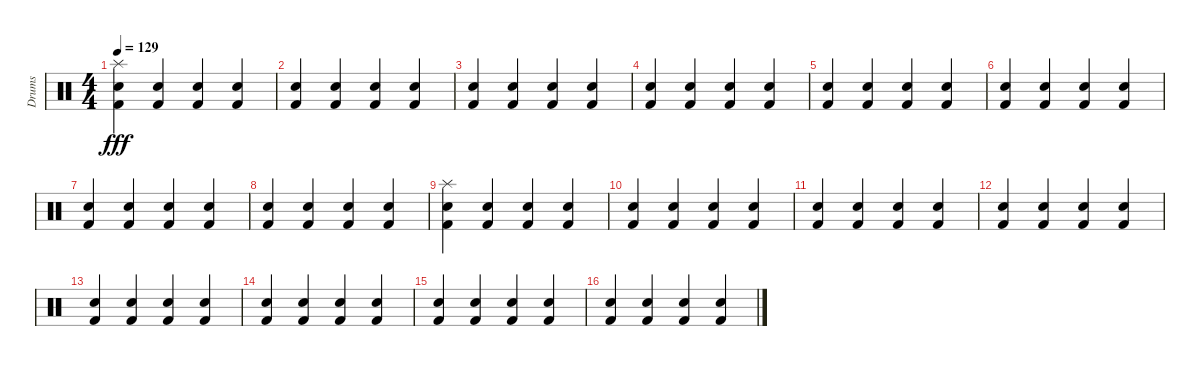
\track ("Drums" "Drums") {instrument percussion}
\staff {score}
\articulation defaults
\ts (4 4)
\tempo 129
\clef neutral
\ks c
("Splash (hit)" "Hand Clap (hit)" "Kick (hit) 2").4{dy fff} ("Hand Clap (hit)" "Kick (hit) 2").4 ("Hand Clap (hit)" "Kick (hit) 2").4 ("Hand Clap (hit)" "Kick (hit) 2").4 |
("Hand Clap (hit)" "Kick (hit) 2").4 ("Hand Clap (hit)" "Kick (hit) 2").4 ("Hand Clap (hit)" "Kick (hit) 2").4 ("Hand Clap (hit)" "Kick (hit) 2").4 |
("Hand Clap (hit)" "Kick (hit) 2").4 ("Hand Clap (hit)" "Kick (hit) 2").4 ("Hand Clap (hit)" "Kick (hit) 2").4 ("Hand Clap (hit)" "Kick (hit) 2").4 |
("Hand Clap (hit)" "Kick (hit) 2").4 ("Hand Clap (hit)" "Kick (hit) 2").4 ("Hand Clap (hit)" "Kick (hit) 2").4 ("Hand Clap (hit)" "Kick (hit) 2").4 |
("Hand Clap (hit)" "Kick (hit) 2").4 ("Hand Clap (hit)" "Kick (hit) 2").4 ("Hand Clap (hit)" "Kick (hit) 2").4 ("Hand Clap (hit)" "Kick (hit) 2").4 |
("Hand Clap (hit)" "Kick (hit) 2").4 ("Hand Clap (hit)" "Kick (hit) 2").4 ("Hand Clap (hit)" "Kick (hit) 2").4 ("Hand Clap (hit)" "Kick (hit) 2").4 |
("Hand Clap (hit)" "Kick (hit) 2").4 ("Hand Clap (hit)" "Kick (hit) 2").4 ("Hand Clap (hit)" "Kick (hit) 2").4 ("Hand Clap (hit)" "Kick (hit) 2").4 |
("Hand Clap (hit)" "Kick (hit) 2").4 ("Hand Clap (hit)" "Kick (hit) 2").4 ("Hand Clap (hit)" "Kick (hit) 2").4 ("Hand Clap (hit)" "Kick (hit) 2").4 |
("Splash (hit)" "Hand Clap (hit)" "Kick (hit) 2").4 ("Hand Clap (hit)" "Kick (hit) 2").4 ("Hand Clap (hit)" "Kick (hit) 2").4 ("Hand Clap (hit)" "Kick (hit) 2").4 |
("Hand Clap (hit)" "Kick (hit) 2").4 ("Hand Clap (hit)" "Kick (hit) 2").4 ("Hand Clap (hit)" "Kick (hit) 2").4 ("Hand Clap (hit)" "Kick (hit) 2").4 |
("Hand Clap (hit)" "Kick (hit) 2").4 ("Hand Clap (hit)" "Kick (hit) 2").4 ("Hand Clap (hit)" "Kick (hit) 2").4 ("Hand Clap (hit)" "Kick (hit) 2").4 |
("Hand Clap (hit)" "Kick (hit) 2").4 ("Hand Clap (hit)" "Kick (hit) 2").4 ("Hand Clap (hit)" "Kick (hit) 2").4 ("Hand Clap (hit)" "Kick (hit) 2").4 |
("Hand Clap (hit)" "Kick (hit) 2").4 ("Hand Clap (hit)" "Kick (hit) 2").4 ("Hand Clap (hit)" "Kick (hit) 2").4 ("Hand Clap (hit)" "Kick (hit) 2").4 |
("Hand Clap (hit)" "Kick (hit) 2").4 ("Hand Clap (hit)" "Kick (hit) 2").4 ("Hand Clap (hit)" "Kick (hit) 2").4 ("Hand Clap (hit)" "Kick (hit) 2").4 |
("Hand Clap (hit)" "Kick (hit) 2").4 ("Hand Clap (hit)" "Kick (hit) 2").4 ("Hand Clap (hit)" "Kick (hit) 2").4 ("Hand Clap (hit)" "Kick (hit) 2").4 |
("Hand Clap (hit)" "Kick (hit) 2").4 ("Hand Clap (hit)" "Kick (hit) 2").4 ("Hand Clap (hit)" "Kick (hit) 2").4 ("Hand Clap (hit)" "Kick (hit) 2").4
